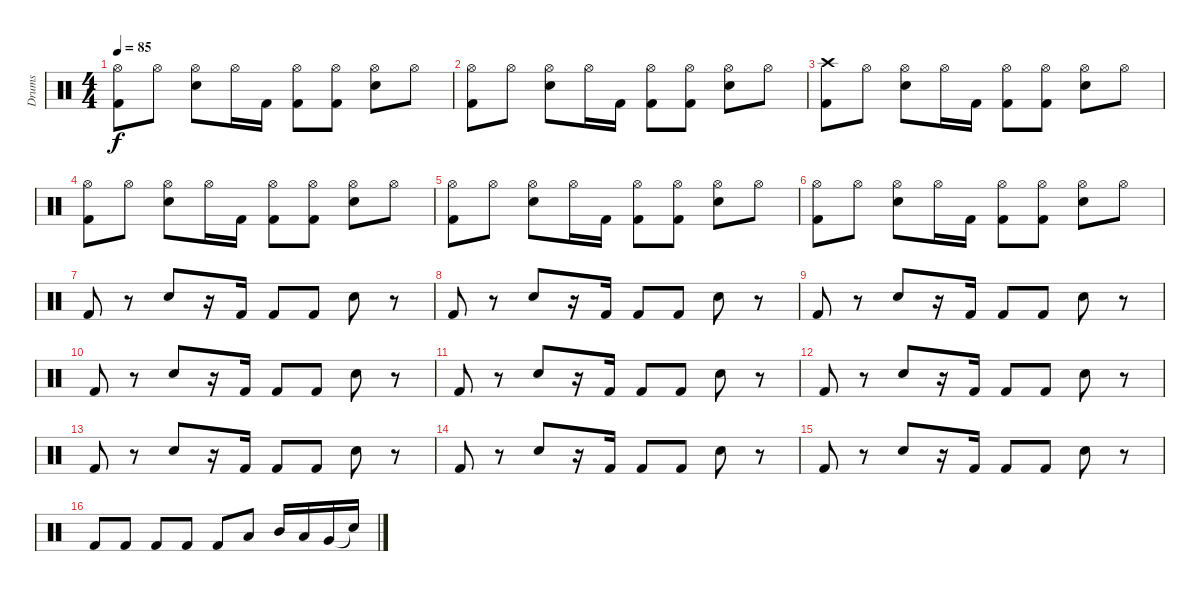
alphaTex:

\track ("Drums" "Drums") {instrument percussion}
\staff {score}
\articulation defaults
\ts (4 4)
\tempo 85
\clef neutral
\ks c
("Hi-Hat (open)" "Kick (hit) 2").8{dy f} "Hi-Hat (open)".8 ("Hi-Hat (open)" "Snare (hit) 2").8 "Hi-Hat (open)".16 "Kick (hit) 2".16 ("Hi-Hat (open)" "Kick (hit) 2").8 ("Hi-Hat (open)" "Kick (hit) 2").8 ("Hi-Hat (open)" "Snare (hit) 2").8 "Hi-Hat (open)".8 |
("Hi-Hat (open)" "Kick (hit) 2").8 "Hi-Hat (open)".8 ("Hi-Hat (open)" "Snare (hit) 2").8 "Hi-Hat (open)".16 "Kick (hit) 2".16 ("Hi-Hat (open)" "Kick (hit) 2").8 ("Hi-Hat (open)" "Kick (hit) 2").8 ("Hi-Hat (open)" "Snare (hit) 2").8 "Hi-Hat (open)".8 |
("Crash high (hit)" "Kick (hit) 2").8 "Hi-Hat (open)".8 ("Hi-Hat (open)" "Snare (hit) 2").8 "Hi-Hat (open)".16 "Kick (hit) 2".16 ("Hi-Hat (open)" "Kick (hit) 2").8 ("Hi-Hat (open)" "Kick (hit) 2").8 ("Hi-Hat (open)" "Snare (hit) 2").8 "Hi-Hat (open)".8 |
("Hi-Hat (open)" "Kick (hit) 2").8 "Hi-Hat (open)".8 ("Hi-Hat (open)" "Snare (hit) 2").8 "Hi-Hat (open)".16 "Kick (hit) 2".16 ("Hi-Hat (open)" "Kick (hit) 2").8 ("Hi-Hat (open)" "Kick (hit) 2").8 ("Hi-Hat (open)" "Snare (hit) 2").8 "Hi-Hat (open)".8 |
("Hi-Hat (open)" "Kick (hit) 2").8 "Hi-Hat (open)".8 ("Hi-Hat (open)" "Snare (hit) 2").8 "Hi-Hat (open)".16 "Kick (hit) 2".16 ("Hi-Hat (open)" "Kick (hit) 2").8 ("Hi-Hat (open)" "Kick (hit) 2").8 ("Hi-Hat (open)" "Snare (hit) 2").8 "Hi-Hat (open)".8 |
("Hi-Hat (open)" "Kick (hit) 2").8 "Hi-Hat (open)".8 ("Hi-Hat (open)" "Snare (hit) 2").8 "Hi-Hat (open)".16 "Kick (hit) 2".16 ("Hi-Hat (open)" "Kick (hit) 2").8 ("Hi-Hat (open)" "Kick (hit) 2").8 ("Hi-Hat (open)" "Snare (hit) 2").8 "Hi-Hat (open)".8 |
"Kick (hit) 2".8 r.8 "Snare (hit) 2".8 r.16 "Kick (hit) 2".16 "Kick (hit) 2".8 "Kick (hit) 2".8 "Snare (hit) 2".8 r.8 |
"Kick (hit) 2".8 r.8 "Snare (hit) 2".8 r.16 "Kick (hit) 2".16 "Kick (hit) 2".8 "Kick (hit) 2".8 "Snare (hit) 2".8 r.8 |
"Kick (hit) 2".8 r.8 "Snare (hit) 2".8 r.16 "Kick (hit) 2".16 "Kick (hit) 2".8 "Kick (hit) 2".8 "Snare (hit) 2".8 r.8 |
"Kick (hit) 2".8 r.8 "Snare (hit) 2".8 r.16 "Kick (hit) 2".16 "Kick (hit) 2".8 "Kick (hit) 2".8 "Snare (hit) 2".8 r.8 |
"Kick (hit) 2".8 r.8 "Snare (hit) 2".8 r.16 "Kick (hit) 2".16 "Kick (hit) 2".8 "Kick (hit) 2".8 "Snare (hit) 2".8 r.8 |
"Kick (hit) 2".8 r.8 "Snare (hit) 2".8 r.16 "Kick (hit) 2".16 "Kick (hit) 2".8 "Kick (hit) 2".8 "Snare (hit) 2".8 r.8 |
"Kick (hit) 2".8 r.8 "Snare (hit) 2".8 r.16 "Kick (hit) 2".16 "Kick (hit) 2".8 "Kick (hit) 2".8 "Snare (hit) 2".8 r.8 |
"Kick (hit) 2".8 r.8 "Snare (hit) 2".8 r.16 "Kick (hit) 2".16 "Kick (hit) 2".8 "Kick (hit) 2".8 "Snare (hit) 2".8 r.8 |
"Kick (hit) 2".8 r.8 "Snare (hit) 2".8 r.16 "Kick (hit) 2".16 "Kick (hit) 2".8 "Kick (hit) 2".8 "Snare (hit) 2".8 r.8 |
"Kick (hit) 2".8 "Kick (hit) 2".8 "Kick (hit) 2".8 "Kick (hit) 2".8 "Kick (hit) 2".8 "Low Tom (hit)".8 "Mid Tom (hit)".16 "Low Tom (hit)".16 "Very Low Tom (hit)".16 "Snare (hit)"{t}.16
